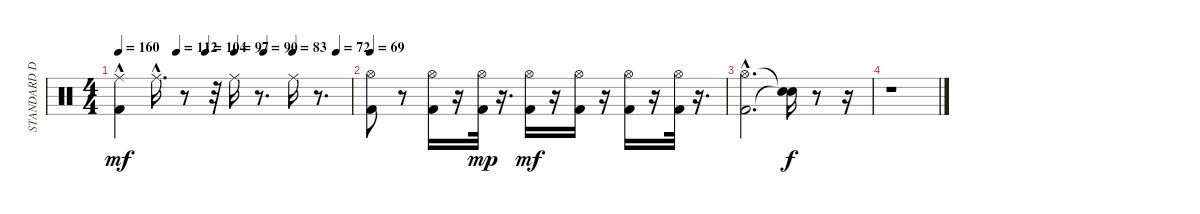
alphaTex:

\track ("STANDARD DRUMS" "STANDARD D") {instrument percussion}
\staff {score}
\articulation defaults
\ts (4 4)
\tempo 160
\tempo (112 0.25)
\tempo (104 0.375)
\tempo (97 0.5)
\tempo (90 0.625)
\tempo (83 0.75)
\tempo (72 0.9375)
\clef neutral
\ks c
("Kick (hit) 2"{hac} "Ride (middle)").4{dy mf} "Ride (middle)"{hac}.16{d} r.8 r.32 "Ride (middle)".16 r.8{d} "Ride (middle)".16 r.8{d} |
\tempo 69
("Hi-Hat (open)" "Kick (hit) 2").8 r.8 ("Kick (hit) 2" "Hi-Hat (open)").16 r.16 ("Hi-Hat (open)" "Kick (hit) 2").32{dy mp} r.16{d} ("Kick (hit) 2" "Hi-Hat (open)").16{dy mf} r.16 ("Kick (hit) 2" "Hi-Hat (open)").16 r.16 ("Kick (hit) 2" "Hi-Hat (open)").16 r.16 ("Kick (hit) 2" "Hi-Hat (open)").32 r.16{d} |
("Kick (hit) 2"{hac} "Hi-Hat (open)"{hac}).2{d} ("Snare (hit)"{t} "Snare (hit)"{t}).16{dy f} r.8 r.16 |
r.1
